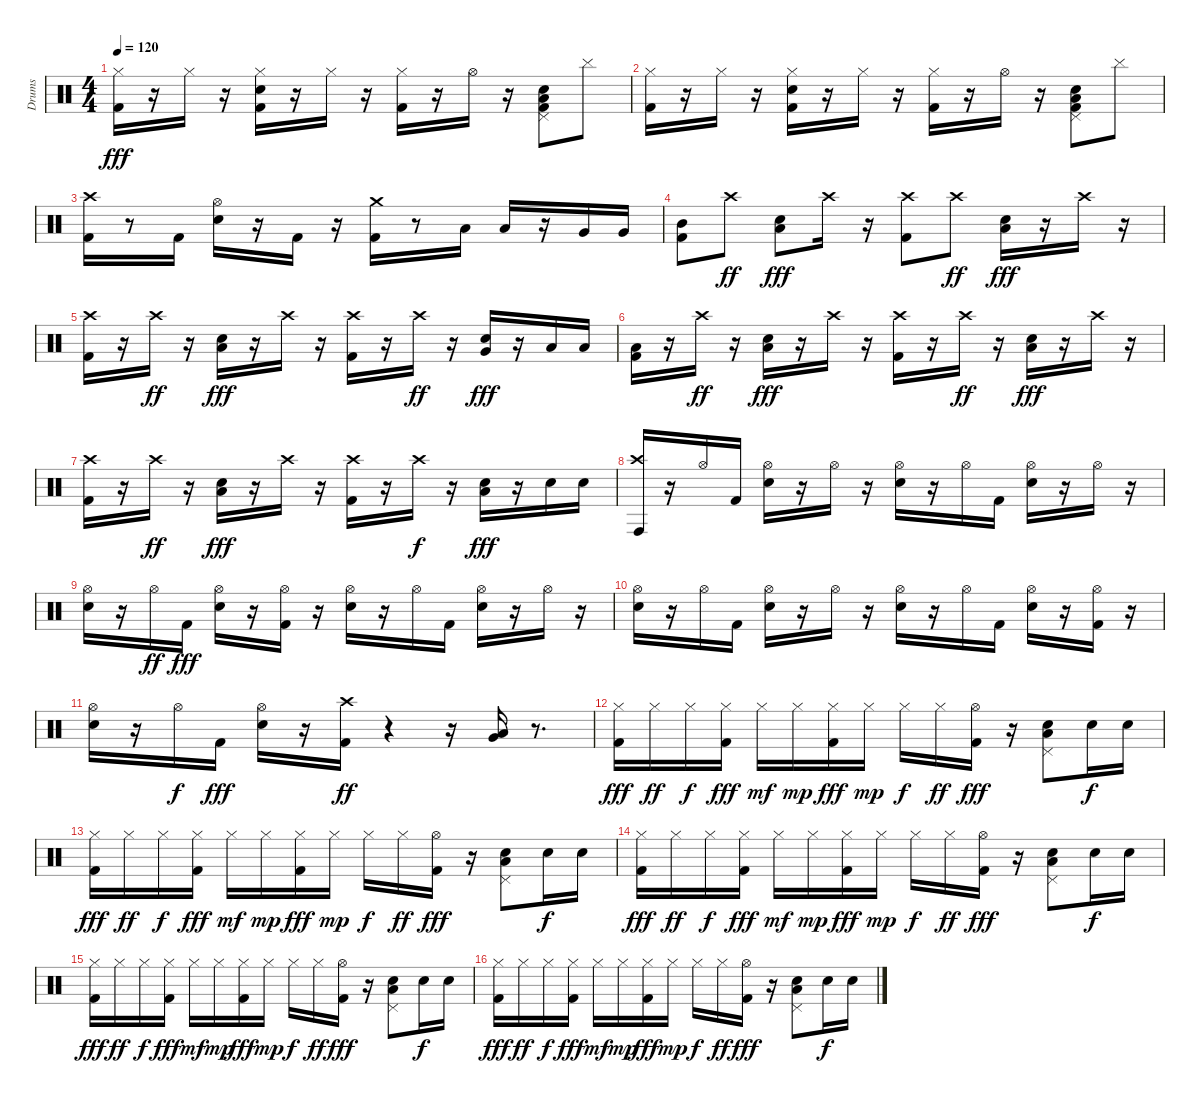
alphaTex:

\track ("Drums" "Drums") {instrument percussion}
\staff {score}
\articulation defaults
\ts (4 4)
\tempo 120
\clef neutral
\ks c
("Kick (hit) 2" "Hi-Hat (closed)").16{dy fff} r.16 "Hi-Hat (closed)".16 r.16 ("Kick (hit) 2" "Hi-Hat (closed)" "Snare (hit) 2").16 r.16 "Hi-Hat (closed)".16 r.16 ("Kick (hit) 2" "Hi-Hat (closed)").16 r.16 "Hi-Hat (open)".16 r.16 ("Kick (hit) 2" "Pedal Hi-Hat (hit)" "Low Floor Tom (hit)" "Snare (hit) 2").8 "Cymbal (hit)".8 |
("Kick (hit) 2" "Hi-Hat (closed)").16 r.16 "Hi-Hat (closed)".16 r.16 ("Kick (hit) 2" "Hi-Hat (closed)" "Snare (hit) 2").16 r.16 "Hi-Hat (closed)".16 r.16 ("Kick (hit) 2" "Hi-Hat (closed)").16 r.16 "Hi-Hat (open)".16 r.16 ("Kick (hit) 2" "Pedal Hi-Hat (hit)" "Low Floor Tom (hit)" "Snare (hit) 2").8 "Cymbal (hit)".8 |
("Crash high (hit)" "Kick (hit) 2").16 r.8 "Kick (hit) 2".16 ("Snare (hit) 2" "Hi-Hat (open)").16 r.16 "Kick (hit) 2".16 r.16 ("Crash medium (hit)" "Kick (hit) 2").16 r.8 "Low Tom (hit)".16 "Low Tom (hit)".16 r.16 "Very Low Tom (hit)".16 "Very Low Tom (hit)".16 |
("Kick (hit) 2" "Mid Tom (hit)").8 "Crash high (hit)".8{dy ff} ("Low Floor Tom (hit)" "Snare (hit) 2").8{dy fff} "Crash high (hit)".16 r.16 ("Kick (hit) 2" "Crash high (hit)").8 "Crash high (hit)".8{dy ff} ("Low Floor Tom (hit)" "Snare (hit) 2").16{dy fff} r.16 "Crash high (hit)".16 r.16 |
("Kick (hit) 2" "Crash high (hit)").16 r.16 "Crash high (hit)".16{dy ff} r.16 ("Snare (hit) 2" "Low Floor Tom (hit)").16{dy fff} r.16 "Crash high (hit)".16 r.16 ("Crash high (hit)" "Kick (hit) 2").16 r.16 "Crash high (hit)".16{dy ff} r.16 ("Snare (hit) 2" "Very Low Tom (hit)").16{dy fff} r.16 "Low Tom (hit)".16 "Low Tom (hit)".16 |
("Low Tom (hit)" "Kick (hit) 2").16 r.16 "Crash high (hit)".16{dy ff} r.16 ("Low Floor Tom (hit)" "Snare (hit) 2").16{dy fff} r.16 "Crash high (hit)".16 r.16 ("Kick (hit) 2" "Crash high (hit)").16 r.16 "Crash high (hit)".16{dy ff} r.16 ("Low Floor Tom (hit)" "Snare (hit) 2").16{dy fff} r.16 "Crash high (hit)".16 r.16 |
("Crash high (hit)" "Kick (hit) 2").16 r.16 "Crash high (hit)".16{dy ff} r.16 ("Low Floor Tom (hit)" "Snare (hit) 2").16{dy fff} r.16 "Crash high (hit)".16 r.16 ("Kick (hit) 2" "Crash high (hit)").16 r.16 "Crash high (hit)".16{dy f} r.16 ("Snare (hit) 2" "Low Floor Tom (hit)").16{dy fff} r.16 "Snare (hit) 2".16 "Snare (hit) 2".16 |
("Crash high (hit)" "Conga high (hit)").16 r.16 "Hi-Hat (open)".16 "Kick (hit) 2".16 ("Snare (hit) 2" "Hi-Hat (open)").16 r.16 "Hi-Hat (open)".16 r.16 ("Hi-Hat (open)" "Snare (hit) 2").16 r.16 "Hi-Hat (open)".16 "Kick (hit) 2".16 ("Hi-Hat (open)" "Snare (hit) 2").16 r.16 "Hi-Hat (open)".16 r.16 |
("Snare (hit) 2" "Hi-Hat (open)").16 r.16 "Hi-Hat (open)".16{dy ff} "Kick (hit) 2".16{dy fff} ("Snare (hit) 2" "Hi-Hat (open)").16 r.16 ("Kick (hit) 2" "Hi-Hat (open)").16 r.16 ("Hi-Hat (open)" "Snare (hit) 2").16 r.16 "Hi-Hat (open)".16 "Kick (hit) 2".16 ("Snare (hit) 2" "Hi-Hat (open)").16 r.16 "Hi-Hat (open)".16 r.16 |
("Hi-Hat (open)" "Snare (hit) 2").16 r.16 "Hi-Hat (open)".16 "Kick (hit) 2".16 ("Hi-Hat (open)" "Snare (hit) 2").16 r.16 "Hi-Hat (open)".16 r.16 ("Hi-Hat (open)" "Snare (hit) 2").16 r.16 "Hi-Hat (open)".16 "Kick (hit) 2".16 ("Hi-Hat (open)" "Snare (hit) 2").16 r.16 ("Kick (hit) 2" "Hi-Hat (open)").16 r.16 |
("Hi-Hat (open)" "Snare (hit) 2").16 r.16 "Hi-Hat (open)".16{dy f} "Kick (hit) 2".16{dy fff} ("Hi-Hat (open)" "Snare (hit) 2").16 r.16 ("Crash high (hit)" "Kick (hit) 2").16{dy ff} r.4 r.16 ("Low Floor Tom (hit)" "Very Low Tom (hit)").16 r.8{d} |
("Kick (hit) 2" "Hi-Hat (closed)").16{dy fff} "Hi-Hat (closed)".16{dy ff} "Hi-Hat (closed)".16{dy f} ("Hi-Hat (closed)" "Kick (hit) 2").16{dy fff} "Hi-Hat (closed)".16{dy mf} "Hi-Hat (closed)".16{dy mp} ("Hi-Hat (closed)" "Kick (hit) 2").16{dy fff} "Hi-Hat (closed)".16{dy mp} "Hi-Hat (closed)".16{dy f} "Hi-Hat (closed)".16{dy ff} ("Kick (hit) 2" "Hi-Hat (open)").16{dy fff} r.16 ("Snare (hit) 2" "Low Floor Tom (hit)" "Pedal Hi-Hat (hit)").8 "Snare (hit) 2".16{dy f} "Snare (hit) 2".16 |
("Kick (hit) 2" "Hi-Hat (closed)").16{dy fff} "Hi-Hat (closed)".16{dy ff} "Hi-Hat (closed)".16{dy f} ("Hi-Hat (closed)" "Kick (hit) 2").16{dy fff} "Hi-Hat (closed)".16{dy mf} "Hi-Hat (closed)".16{dy mp} ("Hi-Hat (closed)" "Kick (hit) 2").16{dy fff} "Hi-Hat (closed)".16{dy mp} "Hi-Hat (closed)".16{dy f} "Hi-Hat (closed)".16{dy ff} ("Kick (hit) 2" "Hi-Hat (open)").16{dy fff} r.16 ("Snare (hit) 2" "Low Floor Tom (hit)" "Pedal Hi-Hat (hit)").8 "Snare (hit) 2".16{dy f} "Snare (hit) 2".16 |
("Kick (hit) 2" "Hi-Hat (closed)").16{dy fff} "Hi-Hat (closed)".16{dy ff} "Hi-Hat (closed)".16{dy f} ("Hi-Hat (closed)" "Kick (hit) 2").16{dy fff} "Hi-Hat (closed)".16{dy mf} "Hi-Hat (closed)".16{dy mp} ("Hi-Hat (closed)" "Kick (hit) 2").16{dy fff} "Hi-Hat (closed)".16{dy mp} "Hi-Hat (closed)".16{dy f} "Hi-Hat (closed)".16{dy ff} ("Kick (hit) 2" "Hi-Hat (open)").16{dy fff} r.16 ("Snare (hit) 2" "Low Floor Tom (hit)" "Pedal Hi-Hat (hit)").8 "Snare (hit) 2".16{dy f} "Snare (hit) 2".16 |
("Kick (hit) 2" "Hi-Hat (closed)").16{dy fff} "Hi-Hat (closed)".16{dy ff} "Hi-Hat (closed)".16{dy f} ("Hi-Hat (closed)" "Kick (hit) 2").16{dy fff} "Hi-Hat (closed)".16{dy mf} "Hi-Hat (closed)".16{dy mp} ("Hi-Hat (closed)" "Kick (hit) 2").16{dy fff} "Hi-Hat (closed)".16{dy mp} "Hi-Hat (closed)".16{dy f} "Hi-Hat (closed)".16{dy ff} ("Kick (hit) 2" "Hi-Hat (open)").16{dy fff} r.16 ("Snare (hit) 2" "Low Floor Tom (hit)" "Pedal Hi-Hat (hit)").8 "Snare (hit) 2".16{dy f} "Snare (hit) 2".16 |
("Kick (hit) 2" "Hi-Hat (closed)").16{dy fff} "Hi-Hat (closed)".16{dy ff} "Hi-Hat (closed)".16{dy f} ("Hi-Hat (closed)" "Kick (hit) 2").16{dy fff} "Hi-Hat (closed)".16{dy mf} "Hi-Hat (closed)".16{dy mp} ("Hi-Hat (closed)" "Kick (hit) 2").16{dy fff} "Hi-Hat (closed)".16{dy mp} "Hi-Hat (closed)".16{dy f} "Hi-Hat (closed)".16{dy ff} ("Kick (hit) 2" "Hi-Hat (open)").16{dy fff} r.16 ("Snare (hit) 2" "Low Floor Tom (hit)" "Pedal Hi-Hat (hit)").8 "Snare (hit) 2".16{dy f} "Snare (hit) 2".16
